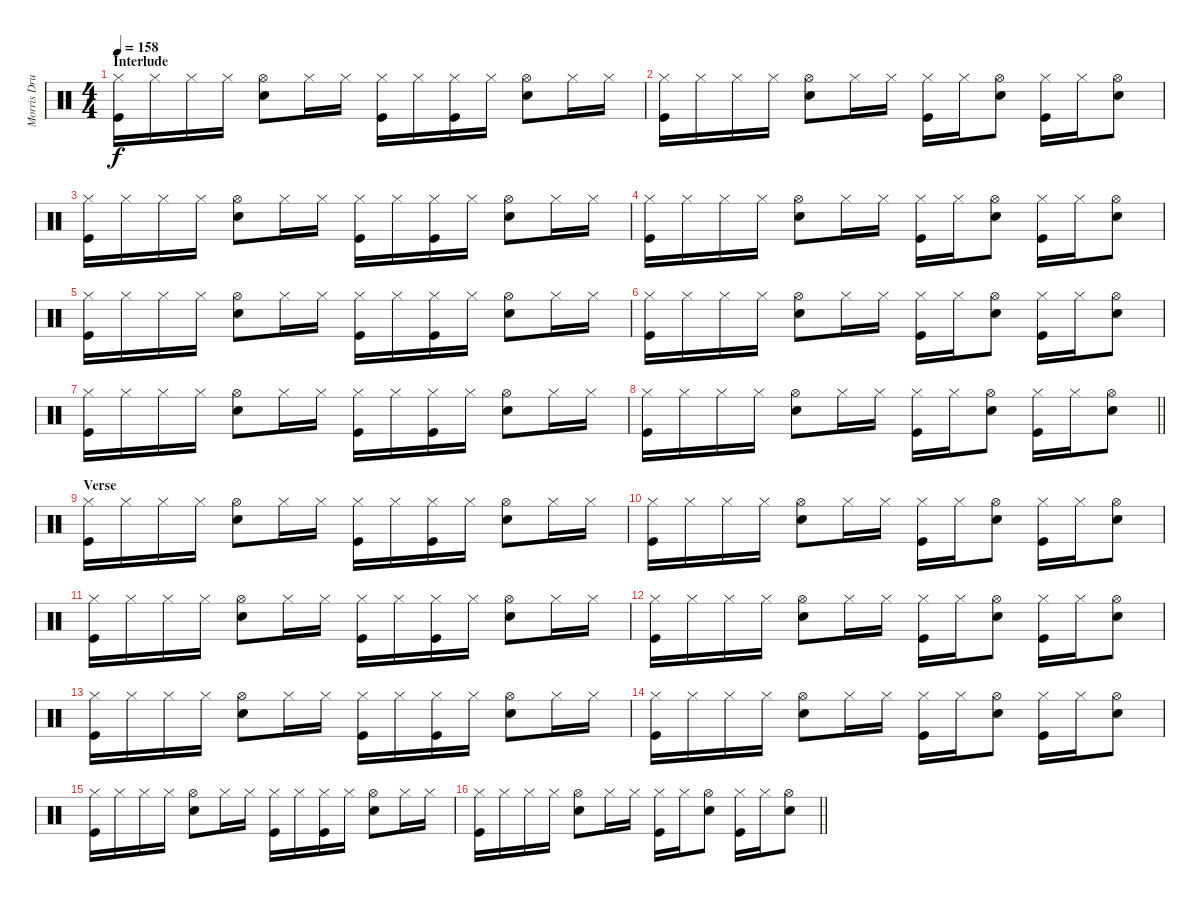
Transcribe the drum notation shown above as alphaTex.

\track ("Morris Drums" "Morris Dru") {instrument percussion}
\staff {score}
\articulation defaults
\ts (4 4)
\section ("" "Interlude")
\tempo 158
\clef neutral
\ks c
("Hi-Hat (closed)" "Kick (hit)").16{dy f} "Hi-Hat (closed)".16 "Hi-Hat (closed)".16 "Hi-Hat (closed)".16 ("Hi-Hat (open)" "Snare (hit) 2").8 "Hi-Hat (closed)".16 "Hi-Hat (closed)".16 ("Hi-Hat (closed)" "Kick (hit)").16 "Hi-Hat (closed)".16 ("Hi-Hat (closed)" "Kick (hit)").16 "Hi-Hat (closed)".16 ("Hi-Hat (open)" "Snare (hit) 2").8 "Hi-Hat (closed)".16 "Hi-Hat (closed)".16 |
("Hi-Hat (closed)" "Kick (hit)").16 "Hi-Hat (closed)".16 "Hi-Hat (closed)".16 "Hi-Hat (closed)".16 ("Hi-Hat (open)" "Snare (hit) 2").8 "Hi-Hat (closed)".16 "Hi-Hat (closed)".16 ("Hi-Hat (closed)" "Kick (hit)").16 "Hi-Hat (closed)".16 ("Hi-Hat (open)" "Snare (hit) 2").8 ("Hi-Hat (closed)" "Kick (hit)").16 "Hi-Hat (closed)".16 ("Hi-Hat (open)" "Snare (hit) 2").8 |
("Hi-Hat (closed)" "Kick (hit)").16 "Hi-Hat (closed)".16 "Hi-Hat (closed)".16 "Hi-Hat (closed)".16 ("Hi-Hat (open)" "Snare (hit) 2").8 "Hi-Hat (closed)".16 "Hi-Hat (closed)".16 ("Hi-Hat (closed)" "Kick (hit)").16 "Hi-Hat (closed)".16 ("Hi-Hat (closed)" "Kick (hit)").16 "Hi-Hat (closed)".16 ("Hi-Hat (open)" "Snare (hit) 2").8 "Hi-Hat (closed)".16 "Hi-Hat (closed)".16 |
("Hi-Hat (closed)" "Kick (hit)").16 "Hi-Hat (closed)".16 "Hi-Hat (closed)".16 "Hi-Hat (closed)".16 ("Hi-Hat (open)" "Snare (hit) 2").8 "Hi-Hat (closed)".16 "Hi-Hat (closed)".16 ("Hi-Hat (closed)" "Kick (hit)").16 "Hi-Hat (closed)".16 ("Hi-Hat (open)" "Snare (hit) 2").8 ("Hi-Hat (closed)" "Kick (hit)").16 "Hi-Hat (closed)".16 ("Hi-Hat (open)" "Snare (hit) 2").8 |
("Hi-Hat (closed)" "Kick (hit)").16 "Hi-Hat (closed)".16 "Hi-Hat (closed)".16 "Hi-Hat (closed)".16 ("Hi-Hat (open)" "Snare (hit) 2").8 "Hi-Hat (closed)".16 "Hi-Hat (closed)".16 ("Hi-Hat (closed)" "Kick (hit)").16 "Hi-Hat (closed)".16 ("Hi-Hat (closed)" "Kick (hit)").16 "Hi-Hat (closed)".16 ("Hi-Hat (open)" "Snare (hit) 2").8 "Hi-Hat (closed)".16 "Hi-Hat (closed)".16 |
("Hi-Hat (closed)" "Kick (hit)").16 "Hi-Hat (closed)".16 "Hi-Hat (closed)".16 "Hi-Hat (closed)".16 ("Hi-Hat (open)" "Snare (hit) 2").8 "Hi-Hat (closed)".16 "Hi-Hat (closed)".16 ("Hi-Hat (closed)" "Kick (hit)").16 "Hi-Hat (closed)".16 ("Hi-Hat (open)" "Snare (hit) 2").8 ("Hi-Hat (closed)" "Kick (hit)").16 "Hi-Hat (closed)".16 ("Hi-Hat (open)" "Snare (hit) 2").8 |
("Hi-Hat (closed)" "Kick (hit)").16 "Hi-Hat (closed)".16 "Hi-Hat (closed)".16 "Hi-Hat (closed)".16 ("Hi-Hat (open)" "Snare (hit) 2").8 "Hi-Hat (closed)".16 "Hi-Hat (closed)".16 ("Hi-Hat (closed)" "Kick (hit)").16 "Hi-Hat (closed)".16 ("Hi-Hat (closed)" "Kick (hit)").16 "Hi-Hat (closed)".16 ("Hi-Hat (open)" "Snare (hit) 2").8 "Hi-Hat (closed)".16 "Hi-Hat (closed)".16 |
\barLineRight lightlight
("Hi-Hat (closed)" "Kick (hit)").16 "Hi-Hat (closed)".16 "Hi-Hat (closed)".16 "Hi-Hat (closed)".16 ("Hi-Hat (open)" "Snare (hit) 2").8 "Hi-Hat (closed)".16 "Hi-Hat (closed)".16 ("Hi-Hat (closed)" "Kick (hit)").16 "Hi-Hat (closed)".16 ("Hi-Hat (open)" "Snare (hit) 2").8 ("Hi-Hat (closed)" "Kick (hit)").16 "Hi-Hat (closed)".16 ("Hi-Hat (open)" "Snare (hit) 2").8 |
\section ("" "Verse")
("Hi-Hat (closed)" "Kick (hit)").16 "Hi-Hat (closed)".16 "Hi-Hat (closed)".16 "Hi-Hat (closed)".16 ("Hi-Hat (open)" "Snare (hit) 2").8 "Hi-Hat (closed)".16 "Hi-Hat (closed)".16 ("Hi-Hat (closed)" "Kick (hit)").16 "Hi-Hat (closed)".16 ("Hi-Hat (closed)" "Kick (hit)").16 "Hi-Hat (closed)".16 ("Hi-Hat (open)" "Snare (hit) 2").8 "Hi-Hat (closed)".16 "Hi-Hat (closed)".16 |
("Hi-Hat (closed)" "Kick (hit)").16 "Hi-Hat (closed)".16 "Hi-Hat (closed)".16 "Hi-Hat (closed)".16 ("Hi-Hat (open)" "Snare (hit) 2").8 "Hi-Hat (closed)".16 "Hi-Hat (closed)".16 ("Hi-Hat (closed)" "Kick (hit)").16 "Hi-Hat (closed)".16 ("Hi-Hat (open)" "Snare (hit) 2").8 ("Hi-Hat (closed)" "Kick (hit)").16 "Hi-Hat (closed)".16 ("Hi-Hat (open)" "Snare (hit) 2").8 |
("Hi-Hat (closed)" "Kick (hit)").16 "Hi-Hat (closed)".16 "Hi-Hat (closed)".16 "Hi-Hat (closed)".16 ("Hi-Hat (open)" "Snare (hit) 2").8 "Hi-Hat (closed)".16 "Hi-Hat (closed)".16 ("Hi-Hat (closed)" "Kick (hit)").16 "Hi-Hat (closed)".16 ("Hi-Hat (closed)" "Kick (hit)").16 "Hi-Hat (closed)".16 ("Hi-Hat (open)" "Snare (hit) 2").8 "Hi-Hat (closed)".16 "Hi-Hat (closed)".16 |
("Hi-Hat (closed)" "Kick (hit)").16 "Hi-Hat (closed)".16 "Hi-Hat (closed)".16 "Hi-Hat (closed)".16 ("Hi-Hat (open)" "Snare (hit) 2").8 "Hi-Hat (closed)".16 "Hi-Hat (closed)".16 ("Hi-Hat (closed)" "Kick (hit)").16 "Hi-Hat (closed)".16 ("Hi-Hat (open)" "Snare (hit) 2").8 ("Hi-Hat (closed)" "Kick (hit)").16 "Hi-Hat (closed)".16 ("Hi-Hat (open)" "Snare (hit) 2").8 |
("Hi-Hat (closed)" "Kick (hit)").16 "Hi-Hat (closed)".16 "Hi-Hat (closed)".16 "Hi-Hat (closed)".16 ("Hi-Hat (open)" "Snare (hit) 2").8 "Hi-Hat (closed)".16 "Hi-Hat (closed)".16 ("Hi-Hat (closed)" "Kick (hit)").16 "Hi-Hat (closed)".16 ("Hi-Hat (closed)" "Kick (hit)").16 "Hi-Hat (closed)".16 ("Hi-Hat (open)" "Snare (hit) 2").8 "Hi-Hat (closed)".16 "Hi-Hat (closed)".16 |
("Hi-Hat (closed)" "Kick (hit)").16 "Hi-Hat (closed)".16 "Hi-Hat (closed)".16 "Hi-Hat (closed)".16 ("Hi-Hat (open)" "Snare (hit) 2").8 "Hi-Hat (closed)".16 "Hi-Hat (closed)".16 ("Hi-Hat (closed)" "Kick (hit)").16 "Hi-Hat (closed)".16 ("Hi-Hat (open)" "Snare (hit) 2").8 ("Hi-Hat (closed)" "Kick (hit)").16 "Hi-Hat (closed)".16 ("Hi-Hat (open)" "Snare (hit) 2").8 |
("Hi-Hat (closed)" "Kick (hit)").16 "Hi-Hat (closed)".16 "Hi-Hat (closed)".16 "Hi-Hat (closed)".16 ("Hi-Hat (open)" "Snare (hit) 2").8 "Hi-Hat (closed)".16 "Hi-Hat (closed)".16 ("Hi-Hat (closed)" "Kick (hit)").16 "Hi-Hat (closed)".16 ("Hi-Hat (closed)" "Kick (hit)").16 "Hi-Hat (closed)".16 ("Hi-Hat (open)" "Snare (hit) 2").8 "Hi-Hat (closed)".16 "Hi-Hat (closed)".16 |
\barLineRight lightlight
("Hi-Hat (closed)" "Kick (hit)").16 "Hi-Hat (closed)".16 "Hi-Hat (closed)".16 "Hi-Hat (closed)".16 ("Hi-Hat (open)" "Snare (hit) 2").8 "Hi-Hat (closed)".16 "Hi-Hat (closed)".16 ("Hi-Hat (closed)" "Kick (hit)").16 "Hi-Hat (closed)".16 ("Hi-Hat (open)" "Snare (hit) 2").8 ("Hi-Hat (closed)" "Kick (hit)").16 "Hi-Hat (closed)".16 ("Hi-Hat (open)" "Snare (hit) 2").8
